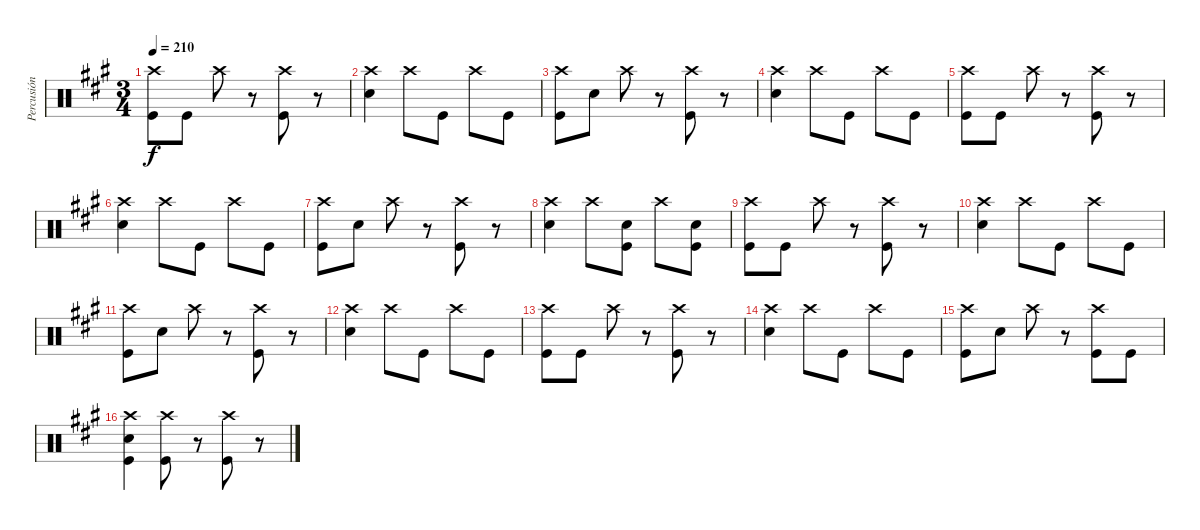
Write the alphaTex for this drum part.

\track ("Percusión" "Percusión") {instrument percussion}
\staff {score}
\articulation defaults
\ts (3 4)
\tempo 210
\clef neutral
\ks a
("Crash high (hit)" "Kick (hit)").8{dy f} "Kick (hit)".8 "Crash high (hit)".8 r.8 ("Crash high (hit)" "Kick (hit)").8 r.8 |
("Crash high (hit)" "Electric Snare (hit)").4 "Crash high (hit)".8 "Kick (hit)".8 "Crash high (hit)".8 "Kick (hit)".8 |
("Crash high (hit)" "Kick (hit)").8 "Electric Snare (hit)".8 "Crash high (hit)".8 r.8 ("Crash high (hit)" "Kick (hit)").8 r.8 |
("Crash high (hit)" "Electric Snare (hit)").4 "Crash high (hit)".8 "Kick (hit)".8 "Crash high (hit)".8 "Kick (hit)".8 |
("Crash high (hit)" "Kick (hit)").8 "Kick (hit)".8 "Crash high (hit)".8 r.8 ("Crash high (hit)" "Kick (hit)").8 r.8 |
("Crash high (hit)" "Electric Snare (hit)").4 "Crash high (hit)".8 "Kick (hit)".8 "Crash high (hit)".8 "Kick (hit)".8 |
("Crash high (hit)" "Kick (hit)").8 "Electric Snare (hit)".8 "Crash high (hit)".8 r.8 ("Crash high (hit)" "Kick (hit)").8 r.8 |
("Crash high (hit)" "Electric Snare (hit)").4 "Crash high (hit)".8 ("Electric Snare (hit)" "Kick (hit)").8 "Crash high (hit)".8 ("Electric Snare (hit)" "Kick (hit)").8 |
("Crash high (hit)" "Kick (hit)").8 "Kick (hit)".8 "Crash high (hit)".8 r.8 ("Crash high (hit)" "Kick (hit)").8 r.8 |
("Crash high (hit)" "Electric Snare (hit)").4 "Crash high (hit)".8 "Kick (hit)".8 "Crash high (hit)".8 "Kick (hit)".8 |
("Crash high (hit)" "Kick (hit)").8 "Electric Snare (hit)".8 "Crash high (hit)".8 r.8 ("Crash high (hit)" "Kick (hit)").8 r.8 |
("Crash high (hit)" "Electric Snare (hit)").4 "Crash high (hit)".8 "Kick (hit)".8 "Crash high (hit)".8 "Kick (hit)".8 |
("Crash high (hit)" "Kick (hit)").8 "Kick (hit)".8 "Crash high (hit)".8 r.8 ("Crash high (hit)" "Kick (hit)").8 r.8 |
("Crash high (hit)" "Electric Snare (hit)").4 "Crash high (hit)".8 "Kick (hit)".8 "Crash high (hit)".8 "Kick (hit)".8 |
("Crash high (hit)" "Kick (hit)").8 "Electric Snare (hit)".8 "Crash high (hit)".8 r.8 ("Crash high (hit)" "Kick (hit)").8 "Kick (hit)".8 |
("Crash high (hit)" "Electric Snare (hit)" "Kick (hit)").4 ("Crash high (hit)" "Kick (hit)").8 r.8 ("Crash high (hit)" "Kick (hit)").8 r.8
